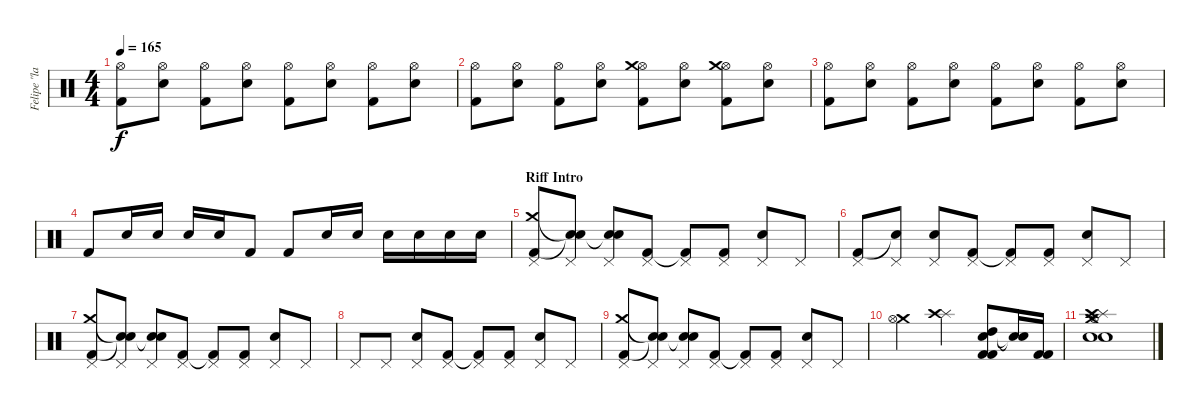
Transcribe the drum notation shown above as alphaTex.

\track ("Felipe \"la caponera\" Muñoz" "Felipe \"la") {instrument percussion}
\staff {score}
\articulation defaults
\ts (4 4)
\tempo 165
\clef neutral
\ks c
("Hi-Hat (open)" "Kick (hit) 2").8{dy f} ("Hi-Hat (open)" "Electric Snare (hit)").8 ("Hi-Hat (open)" "Kick (hit) 2").8 ("Hi-Hat (open)" "Electric Snare (hit)").8 ("Hi-Hat (open)" "Kick (hit) 2").8 ("Hi-Hat (open)" "Electric Snare (hit)").8 ("Hi-Hat (open)" "Kick (hit) 2").8 ("Hi-Hat (open)" "Electric Snare (hit)").8 |
("Hi-Hat (open)" "Kick (hit) 2").8 ("Hi-Hat (open)" "Electric Snare (hit)").8 ("Hi-Hat (open)" "Kick (hit) 2").8 ("Hi-Hat (open)" "Electric Snare (hit)").8 ("Hi-Hat (open)" "Crash medium (hit)" "Kick (hit) 2").8 ("Hi-Hat (open)" "Electric Snare (hit)").8 ("Hi-Hat (open)" "Crash medium (hit)" "Kick (hit) 2").8 ("Hi-Hat (open)" "Electric Snare (hit)").8 |
("Hi-Hat (open)" "Kick (hit) 2").8 ("Hi-Hat (open)" "Electric Snare (hit)").8 ("Hi-Hat (open)" "Kick (hit) 2").8 ("Hi-Hat (open)" "Electric Snare (hit)").8 ("Hi-Hat (open)" "Kick (hit) 2").8 ("Hi-Hat (open)" "Electric Snare (hit)").8 ("Hi-Hat (open)" "Kick (hit) 2").8 ("Hi-Hat (open)" "Electric Snare (hit)").8 |
"Kick (hit) 2".8 "Electric Snare (hit)".16 "Electric Snare (hit)".16 "Electric Snare (hit)".16 "Electric Snare (hit)".16 "Kick (hit) 2".8 "Kick (hit) 2".8 "Electric Snare (hit)".16 "Electric Snare (hit)".16 "Electric Snare (hit)".16 "Electric Snare (hit)".16 "Electric Snare (hit)".16 "Electric Snare (hit)".16 |
\section ("" "Riff Intro")
("Pedal Hi-Hat (hit)" "Crash medium (hit)" "Kick (hit) 2").8 ("Pedal Hi-Hat (hit)" "Snare (hit)"{t} "Snare (hit)"{t}).8 ("Pedal Hi-Hat (hit)" "Snare (hit)"{t} "Electric Snare (hit)").8 ("Pedal Hi-Hat (hit)" "Kick (hit) 2").8 ("Pedal Hi-Hat (hit)" "Kick (hit) 2"{t}).8 ("Pedal Hi-Hat (hit)" "Kick (hit) 2").8 ("Pedal Hi-Hat (hit)" "Electric Snare (hit)").8 "Pedal Hi-Hat (hit)".8 |
("Pedal Hi-Hat (hit)" "Kick (hit) 2").8 ("Pedal Hi-Hat (hit)" "Snare (hit)"{t}).8 ("Pedal Hi-Hat (hit)" "Electric Snare (hit)").8 ("Pedal Hi-Hat (hit)" "Kick (hit) 2").8 ("Pedal Hi-Hat (hit)" "Kick (hit) 2"{t}).8 ("Pedal Hi-Hat (hit)" "Kick (hit) 2").8 ("Pedal Hi-Hat (hit)" "Electric Snare (hit)").8 "Pedal Hi-Hat (hit)".8 |
("Pedal Hi-Hat (hit)" "Crash medium (hit)" "Kick (hit) 2").8 ("Pedal Hi-Hat (hit)" "Snare (hit)"{t} "Snare (hit)"{t}).8 ("Pedal Hi-Hat (hit)" "Snare (hit)"{t} "Electric Snare (hit)").8 ("Pedal Hi-Hat (hit)" "Kick (hit) 2").8 ("Pedal Hi-Hat (hit)" "Kick (hit) 2"{t}).8 ("Pedal Hi-Hat (hit)" "Kick (hit) 2").8 ("Pedal Hi-Hat (hit)" "Electric Snare (hit)").8 "Pedal Hi-Hat (hit)".8 |
"Pedal Hi-Hat (hit)".8 "Pedal Hi-Hat (hit)".8 ("Pedal Hi-Hat (hit)" "Electric Snare (hit)").8 ("Pedal Hi-Hat (hit)" "Kick (hit) 2").8 ("Pedal Hi-Hat (hit)" "Kick (hit) 2"{t}).8 ("Pedal Hi-Hat (hit)" "Kick (hit) 2").8 ("Pedal Hi-Hat (hit)" "Electric Snare (hit)").8 "Pedal Hi-Hat (hit)".8 |
("Pedal Hi-Hat (hit)" "Crash medium (hit)" "Kick (hit) 2").8 ("Pedal Hi-Hat (hit)" "Snare (hit)"{t} "Snare (hit)"{t}).8 ("Pedal Hi-Hat (hit)" "Snare (hit)"{t} "Electric Snare (hit)").8 ("Pedal Hi-Hat (hit)" "Kick (hit) 2").8 ("Pedal Hi-Hat (hit)" "Kick (hit) 2"{t}).8 ("Pedal Hi-Hat (hit)" "Kick (hit) 2").8 ("Pedal Hi-Hat (hit)" "Electric Snare (hit)").8 "Pedal Hi-Hat (hit)".8 |
("Crash medium (hit)" "Hi-Hat (open)").2 ("Splash (hit)" "Crash high (hit)").4 ("Electric Snare (hit)" "High Tom (hit)" "Kick (hit) 2" "Kick (hit) 2").8 ("Snare (hit)"{t} "Snare (hit)"{t}).16 ("Kick (hit) 2" "Kick (hit) 2").16 |
("Crash medium (hit)" "Hi-Hat (open)" "Electric Snare (hit)" "Snare (hit) 2" "Splash (hit)" "Crash high (hit)").1
